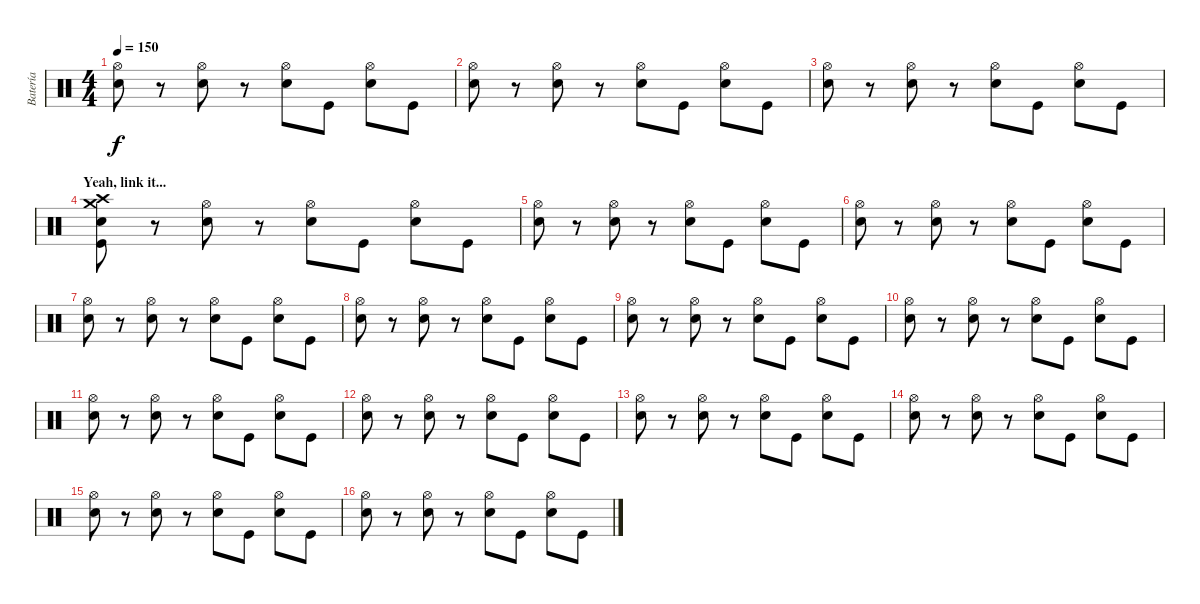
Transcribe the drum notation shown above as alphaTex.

\track ("Batería" "Batería") {instrument percussion}
\staff {score}
\articulation defaults
\ts (4 4)
\tempo 150
\clef neutral
\ks c
("Hi-Hat (open)" "Snare (hit) 2").8{dy f} r.8 ("Hi-Hat (open)" "Snare (hit) 2").8 r.8 ("Hi-Hat (open)" "Snare (hit) 2").8 "Kick (hit)".8 ("Hi-Hat (open)" "Snare (hit) 2").8 "Kick (hit)".8 |
("Hi-Hat (open)" "Snare (hit) 2").8 r.8 ("Hi-Hat (open)" "Snare (hit) 2").8 r.8 ("Hi-Hat (open)" "Snare (hit) 2").8 "Kick (hit)".8 ("Hi-Hat (open)" "Snare (hit) 2").8 "Kick (hit)".8 |
("Hi-Hat (open)" "Snare (hit) 2").8 r.8 ("Hi-Hat (open)" "Snare (hit) 2").8 r.8 ("Hi-Hat (open)" "Snare (hit) 2").8 "Kick (hit)".8 ("Hi-Hat (open)" "Snare (hit) 2").8 "Kick (hit)".8 |
\section ("" "Yeah, link it...")
("Crash medium (hit)" "Snare (hit) 2" "Crash high (hit)" "Kick (hit)").8 r.8 ("Hi-Hat (open)" "Snare (hit) 2").8 r.8 ("Hi-Hat (open)" "Snare (hit) 2").8 "Kick (hit)".8 ("Hi-Hat (open)" "Snare (hit) 2").8 "Kick (hit)".8 |
("Hi-Hat (open)" "Snare (hit) 2").8 r.8 ("Hi-Hat (open)" "Snare (hit) 2").8 r.8 ("Hi-Hat (open)" "Snare (hit) 2").8 "Kick (hit)".8 ("Hi-Hat (open)" "Snare (hit) 2").8 "Kick (hit)".8 |
("Hi-Hat (open)" "Snare (hit) 2").8 r.8 ("Hi-Hat (open)" "Snare (hit) 2").8 r.8 ("Hi-Hat (open)" "Snare (hit) 2").8 "Kick (hit)".8 ("Hi-Hat (open)" "Snare (hit) 2").8 "Kick (hit)".8 |
("Hi-Hat (open)" "Snare (hit) 2").8 r.8 ("Hi-Hat (open)" "Snare (hit) 2").8 r.8 ("Hi-Hat (open)" "Snare (hit) 2").8 "Kick (hit)".8 ("Hi-Hat (open)" "Snare (hit) 2").8 "Kick (hit)".8 |
("Hi-Hat (open)" "Snare (hit) 2").8 r.8 ("Hi-Hat (open)" "Snare (hit) 2").8 r.8 ("Hi-Hat (open)" "Snare (hit) 2").8 "Kick (hit)".8 ("Hi-Hat (open)" "Snare (hit) 2").8 "Kick (hit)".8 |
("Hi-Hat (open)" "Snare (hit) 2").8 r.8 ("Hi-Hat (open)" "Snare (hit) 2").8 r.8 ("Hi-Hat (open)" "Snare (hit) 2").8 "Kick (hit)".8 ("Hi-Hat (open)" "Snare (hit) 2").8 "Kick (hit)".8 |
("Hi-Hat (open)" "Snare (hit) 2").8 r.8 ("Hi-Hat (open)" "Snare (hit) 2").8 r.8 ("Hi-Hat (open)" "Snare (hit) 2").8 "Kick (hit)".8 ("Hi-Hat (open)" "Snare (hit) 2").8 "Kick (hit)".8 |
("Hi-Hat (open)" "Snare (hit) 2").8 r.8 ("Hi-Hat (open)" "Snare (hit) 2").8 r.8 ("Hi-Hat (open)" "Snare (hit) 2").8 "Kick (hit)".8 ("Hi-Hat (open)" "Snare (hit) 2").8 "Kick (hit)".8 |
("Hi-Hat (open)" "Snare (hit) 2").8 r.8 ("Hi-Hat (open)" "Snare (hit) 2").8 r.8 ("Hi-Hat (open)" "Snare (hit) 2").8 "Kick (hit)".8 ("Hi-Hat (open)" "Snare (hit) 2").8 "Kick (hit)".8 |
("Hi-Hat (open)" "Snare (hit) 2").8 r.8 ("Hi-Hat (open)" "Snare (hit) 2").8 r.8 ("Hi-Hat (open)" "Snare (hit) 2").8 "Kick (hit)".8 ("Hi-Hat (open)" "Snare (hit) 2").8 "Kick (hit)".8 |
("Hi-Hat (open)" "Snare (hit) 2").8 r.8 ("Hi-Hat (open)" "Snare (hit) 2").8 r.8 ("Hi-Hat (open)" "Snare (hit) 2").8 "Kick (hit)".8 ("Hi-Hat (open)" "Snare (hit) 2").8 "Kick (hit)".8 |
("Hi-Hat (open)" "Snare (hit) 2").8 r.8 ("Hi-Hat (open)" "Snare (hit) 2").8 r.8 ("Hi-Hat (open)" "Snare (hit) 2").8 "Kick (hit)".8 ("Hi-Hat (open)" "Snare (hit) 2").8 "Kick (hit)".8 |
("Hi-Hat (open)" "Snare (hit) 2").8 r.8 ("Hi-Hat (open)" "Snare (hit) 2").8 r.8 ("Hi-Hat (open)" "Snare (hit) 2").8 "Kick (hit)".8 ("Hi-Hat (open)" "Snare (hit) 2").8 "Kick (hit)".8
